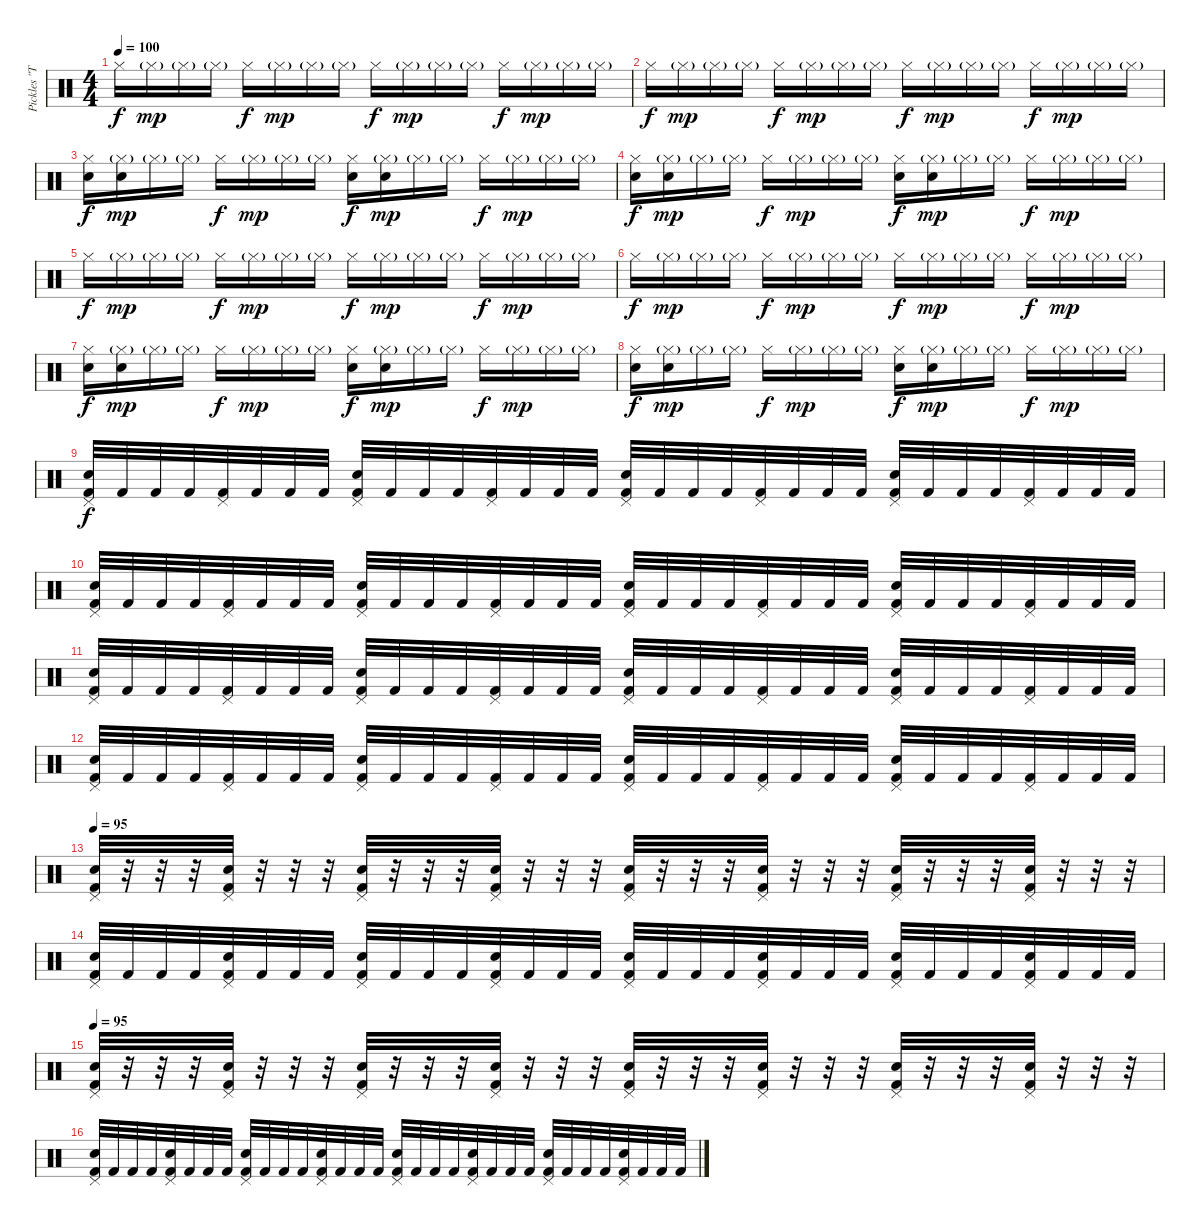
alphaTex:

\track ("Pickles \"The Drummer\"" "Pickles \"T") {instrument percussion}
\staff {score}
\articulation defaults
\ts (4 4)
\tempo 100
\clef neutral
\ks c "Hi-Hat (closed)".16{dy f} "Hi-Hat (closed)"{g}.16{dy mp} "Hi-Hat (closed)"{g}.16 "Hi-Hat (closed)"{g}.16 "Hi-Hat (closed)".16{dy f} "Hi-Hat (closed)"{g}.16{dy mp} "Hi-Hat (closed)"{g}.16 "Hi-Hat (closed)"{g}.16 "Hi-Hat (closed)".16{dy f} "Hi-Hat (closed)"{g}.16{dy mp} "Hi-Hat (closed)"{g}.16 "Hi-Hat (closed)"{g}.16 "Hi-Hat (closed)".16{dy f} "Hi-Hat (closed)"{g}.16{dy mp} "Hi-Hat (closed)"{g}.16 "Hi-Hat (closed)"{g}.16
|
"Hi-Hat (closed)".16{dy f} "Hi-Hat (closed)"{g}.16{dy mp} "Hi-Hat (closed)"{g}.16 "Hi-Hat (closed)"{g}.16 "Hi-Hat (closed)".16{dy f} "Hi-Hat (closed)"{g}.16{dy mp} "Hi-Hat (closed)"{g}.16 "Hi-Hat (closed)"{g}.16 "Hi-Hat (closed)".16{dy f} "Hi-Hat (closed)"{g}.16{dy mp} "Hi-Hat (closed)"{g}.16 "Hi-Hat (closed)"{g}.16 "Hi-Hat (closed)".16{dy f} "Hi-Hat (closed)"{g}.16{dy mp} "Hi-Hat (closed)"{g}.16 "Hi-Hat (closed)"{g}.16 |
("Hi-Hat (closed)" "Electric Snare (hit)").16{dy f} ("Hi-Hat (closed)"{g} "Electric Snare (hit)").16{dy mp} "Hi-Hat (closed)"{g}.16 "Hi-Hat (closed)"{g}.16 "Hi-Hat (closed)".16{dy f} "Hi-Hat (closed)"{g}.16{dy mp} "Hi-Hat (closed)"{g}.16 "Hi-Hat (closed)"{g}.16 ("Hi-Hat (closed)" "Electric Snare (hit)").16{dy f} ("Hi-Hat (closed)"{g} "Electric Snare (hit)").16{dy mp} "Hi-Hat (closed)"{g}.16 "Hi-Hat (closed)"{g}.16 "Hi-Hat (closed)".16{dy f} "Hi-Hat (closed)"{g}.16{dy mp} "Hi-Hat (closed)"{g}.16 "Hi-Hat (closed)"{g}.16 |
("Hi-Hat (closed)" "Electric Snare (hit)").16{dy f} ("Hi-Hat (closed)"{g} "Electric Snare (hit)").16{dy mp} "Hi-Hat (closed)"{g}.16 "Hi-Hat (closed)"{g}.16 "Hi-Hat (closed)".16{dy f} "Hi-Hat (closed)"{g}.16{dy mp} "Hi-Hat (closed)"{g}.16 "Hi-Hat (closed)"{g}.16 ("Hi-Hat (closed)" "Electric Snare (hit)").16{dy f} ("Hi-Hat (closed)"{g} "Electric Snare (hit)").16{dy mp} "Hi-Hat (closed)"{g}.16 "Hi-Hat (closed)"{g}.16 "Hi-Hat (closed)".16{dy f} "Hi-Hat (closed)"{g}.16{dy mp} "Hi-Hat (closed)"{g}.16 "Hi-Hat (closed)"{g}.16 |
"Hi-Hat (closed)".16{dy f} "Hi-Hat (closed)"{g}.16{dy mp} "Hi-Hat (closed)"{g}.16 "Hi-Hat (closed)"{g}.16 "Hi-Hat (closed)".16{dy f} "Hi-Hat (closed)"{g}.16{dy mp} "Hi-Hat (closed)"{g}.16 "Hi-Hat (closed)"{g}.16 "Hi-Hat (closed)".16{dy f} "Hi-Hat (closed)"{g}.16{dy mp} "Hi-Hat (closed)"{g}.16 "Hi-Hat (closed)"{g}.16 "Hi-Hat (closed)".16{dy f} "Hi-Hat (closed)"{g}.16{dy mp} "Hi-Hat (closed)"{g}.16 "Hi-Hat (closed)"{g}.16 |
"Hi-Hat (closed)".16{dy f} "Hi-Hat (closed)"{g}.16{dy mp} "Hi-Hat (closed)"{g}.16 "Hi-Hat (closed)"{g}.16 "Hi-Hat (closed)".16{dy f} "Hi-Hat (closed)"{g}.16{dy mp} "Hi-Hat (closed)"{g}.16 "Hi-Hat (closed)"{g}.16 "Hi-Hat (closed)".16{dy f} "Hi-Hat (closed)"{g}.16{dy mp} "Hi-Hat (closed)"{g}.16 "Hi-Hat (closed)"{g}.16 "Hi-Hat (closed)".16{dy f} "Hi-Hat (closed)"{g}.16{dy mp} "Hi-Hat (closed)"{g}.16 "Hi-Hat (closed)"{g}.16 |
("Hi-Hat (closed)" "Electric Snare (hit)").16{dy f} ("Hi-Hat (closed)"{g} "Electric Snare (hit)").16{dy mp} "Hi-Hat (closed)"{g}.16 "Hi-Hat (closed)"{g}.16 "Hi-Hat (closed)".16{dy f} "Hi-Hat (closed)"{g}.16{dy mp} "Hi-Hat (closed)"{g}.16 "Hi-Hat (closed)"{g}.16 ("Hi-Hat (closed)" "Electric Snare (hit)").16{dy f} ("Hi-Hat (closed)"{g} "Electric Snare (hit)").16{dy mp} "Hi-Hat (closed)"{g}.16 "Hi-Hat (closed)"{g}.16 "Hi-Hat (closed)".16{dy f} "Hi-Hat (closed)"{g}.16{dy mp} "Hi-Hat (closed)"{g}.16 "Hi-Hat (closed)"{g}.16 |
("Hi-Hat (closed)" "Electric Snare (hit)").16{dy f} ("Hi-Hat (closed)"{g} "Electric Snare (hit)").16{dy mp} "Hi-Hat (closed)"{g}.16 "Hi-Hat (closed)"{g}.16 "Hi-Hat (closed)".16{dy f} "Hi-Hat (closed)"{g}.16{dy mp} "Hi-Hat (closed)"{g}.16 "Hi-Hat (closed)"{g}.16 ("Hi-Hat (closed)" "Electric Snare (hit)").16{dy f} ("Hi-Hat (closed)"{g} "Electric Snare (hit)").16{dy mp} "Hi-Hat (closed)"{g}.16 "Hi-Hat (closed)"{g}.16 "Hi-Hat (closed)".16{dy f} "Hi-Hat (closed)"{g}.16{dy mp} "Hi-Hat (closed)"{g}.16 "Hi-Hat (closed)"{g}.16 |
("Pedal Hi-Hat (hit)" "Electric Snare (hit)" "Kick (hit) 2").32{dy f} "Kick (hit) 2".32 "Kick (hit) 2".32 "Kick (hit) 2".32 ("Pedal Hi-Hat (hit)" "Kick (hit) 2").32 "Kick (hit) 2".32 "Kick (hit) 2".32 "Kick (hit) 2".32 ("Pedal Hi-Hat (hit)" "Electric Snare (hit)" "Kick (hit) 2").32 "Kick (hit) 2".32 "Kick (hit) 2".32 "Kick (hit) 2".32 ("Pedal Hi-Hat (hit)" "Kick (hit) 2").32 "Kick (hit) 2".32 "Kick (hit) 2".32 "Kick (hit) 2".32 ("Pedal Hi-Hat (hit)" "Electric Snare (hit)" "Kick (hit) 2").32 "Kick (hit) 2".32 "Kick (hit) 2".32 "Kick (hit) 2".32 ("Pedal Hi-Hat (hit)" "Kick (hit) 2").32 "Kick (hit) 2".32 "Kick (hit) 2".32 "Kick (hit) 2".32 ("Pedal Hi-Hat (hit)" "Electric Snare (hit)" "Kick (hit) 2").32 "Kick (hit) 2".32 "Kick (hit) 2".32 "Kick (hit) 2".32 ("Pedal Hi-Hat (hit)" "Kick (hit) 2").32 "Kick (hit) 2".32 "Kick (hit) 2".32 "Kick (hit) 2".32 |
("Pedal Hi-Hat (hit)" "Electric Snare (hit)" "Kick (hit) 2").32 "Kick (hit) 2".32 "Kick (hit) 2".32 "Kick (hit) 2".32 ("Pedal Hi-Hat (hit)" "Kick (hit) 2").32 "Kick (hit) 2".32 "Kick (hit) 2".32 "Kick (hit) 2".32 ("Pedal Hi-Hat (hit)" "Electric Snare (hit)" "Kick (hit) 2").32 "Kick (hit) 2".32 "Kick (hit) 2".32 "Kick (hit) 2".32 ("Pedal Hi-Hat (hit)" "Kick (hit) 2").32 "Kick (hit) 2".32 "Kick (hit) 2".32 "Kick (hit) 2".32 ("Pedal Hi-Hat (hit)" "Electric Snare (hit)" "Kick (hit) 2").32 "Kick (hit) 2".32 "Kick (hit) 2".32 "Kick (hit) 2".32 ("Pedal Hi-Hat (hit)" "Kick (hit) 2").32 "Kick (hit) 2".32 "Kick (hit) 2".32 "Kick (hit) 2".32 ("Pedal Hi-Hat (hit)" "Electric Snare (hit)" "Kick (hit) 2").32 "Kick (hit) 2".32 "Kick (hit) 2".32 "Kick (hit) 2".32 ("Pedal Hi-Hat (hit)" "Kick (hit) 2").32 "Kick (hit) 2".32 "Kick (hit) 2".32 "Kick (hit) 2".32 |
("Pedal Hi-Hat (hit)" "Electric Snare (hit)" "Kick (hit) 2").32 "Kick (hit) 2".32 "Kick (hit) 2".32 "Kick (hit) 2".32 ("Pedal Hi-Hat (hit)" "Kick (hit) 2").32 "Kick (hit) 2".32 "Kick (hit) 2".32 "Kick (hit) 2".32 ("Pedal Hi-Hat (hit)" "Electric Snare (hit)" "Kick (hit) 2").32 "Kick (hit) 2".32 "Kick (hit) 2".32 "Kick (hit) 2".32 ("Pedal Hi-Hat (hit)" "Kick (hit) 2").32 "Kick (hit) 2".32 "Kick (hit) 2".32 "Kick (hit) 2".32 ("Pedal Hi-Hat (hit)" "Electric Snare (hit)" "Kick (hit) 2").32 "Kick (hit) 2".32 "Kick (hit) 2".32 "Kick (hit) 2".32 ("Pedal Hi-Hat (hit)" "Kick (hit) 2").32 "Kick (hit) 2".32 "Kick (hit) 2".32 "Kick (hit) 2".32 ("Pedal Hi-Hat (hit)" "Electric Snare (hit)" "Kick (hit) 2").32 "Kick (hit) 2".32 "Kick (hit) 2".32 "Kick (hit) 2".32 ("Pedal Hi-Hat (hit)" "Kick (hit) 2").32 "Kick (hit) 2".32 "Kick (hit) 2".32 "Kick (hit) 2".32 |
("Pedal Hi-Hat (hit)" "Electric Snare (hit)" "Kick (hit) 2").32 "Kick (hit) 2".32 "Kick (hit) 2".32 "Kick (hit) 2".32 ("Pedal Hi-Hat (hit)" "Kick (hit) 2").32 "Kick (hit) 2".32 "Kick (hit) 2".32 "Kick (hit) 2".32 ("Pedal Hi-Hat (hit)" "Electric Snare (hit)" "Kick (hit) 2").32 "Kick (hit) 2".32 "Kick (hit) 2".32 "Kick (hit) 2".32 ("Pedal Hi-Hat (hit)" "Kick (hit) 2").32 "Kick (hit) 2".32 "Kick (hit) 2".32 "Kick (hit) 2".32 ("Pedal Hi-Hat (hit)" "Electric Snare (hit)" "Kick (hit) 2").32 "Kick (hit) 2".32 "Kick (hit) 2".32 "Kick (hit) 2".32 ("Pedal Hi-Hat (hit)" "Kick (hit) 2").32 "Kick (hit) 2".32 "Kick (hit) 2".32 "Kick (hit) 2".32 ("Pedal Hi-Hat (hit)" "Electric Snare (hit)" "Kick (hit) 2").32 "Kick (hit) 2".32 "Kick (hit) 2".32 "Kick (hit) 2".32 ("Pedal Hi-Hat (hit)" "Kick (hit) 2").32 "Kick (hit) 2".32 "Kick (hit) 2".32 "Kick (hit) 2".32 |
\tempo 95
("Electric Snare (hit)" "Pedal Hi-Hat (hit)" "Kick (hit) 2").32 r.32 r.32 r.32 ("Electric Snare (hit)" "Pedal Hi-Hat (hit)" "Kick (hit) 2").32 r.32 r.32 r.32 ("Electric Snare (hit)" "Pedal Hi-Hat (hit)" "Kick (hit) 2").32 r.32 r.32 r.32 ("Electric Snare (hit)" "Pedal Hi-Hat (hit)" "Kick (hit) 2").32 r.32 r.32 r.32 ("Electric Snare (hit)" "Pedal Hi-Hat (hit)" "Kick (hit) 2").32 r.32 r.32 r.32 ("Electric Snare (hit)" "Pedal Hi-Hat (hit)" "Kick (hit) 2").32 r.32 r.32 r.32 ("Electric Snare (hit)" "Pedal Hi-Hat (hit)" "Kick (hit) 2").32 r.32 r.32 r.32 ("Electric Snare (hit)" "Pedal Hi-Hat (hit)" "Kick (hit) 2").32 r.32 r.32 r.32 |
("Pedal Hi-Hat (hit)" "Electric Snare (hit)" "Kick (hit) 2").32 "Kick (hit) 2".32 "Kick (hit) 2".32 "Kick (hit) 2".32 ("Pedal Hi-Hat (hit)" "Electric Snare (hit)" "Kick (hit) 2").32 "Kick (hit) 2".32 "Kick (hit) 2".32 "Kick (hit) 2".32 ("Pedal Hi-Hat (hit)" "Electric Snare (hit)" "Kick (hit) 2").32 "Kick (hit) 2".32 "Kick (hit) 2".32 "Kick (hit) 2".32 ("Pedal Hi-Hat (hit)" "Electric Snare (hit)" "Kick (hit) 2").32 "Kick (hit) 2".32 "Kick (hit) 2".32 "Kick (hit) 2".32 ("Pedal Hi-Hat (hit)" "Electric Snare (hit)" "Kick (hit) 2").32 "Kick (hit) 2".32 "Kick (hit) 2".32 "Kick (hit) 2".32 ("Pedal Hi-Hat (hit)" "Electric Snare (hit)" "Kick (hit) 2").32 "Kick (hit) 2".32 "Kick (hit) 2".32 "Kick (hit) 2".32 ("Pedal Hi-Hat (hit)" "Electric Snare (hit)" "Kick (hit) 2").32 "Kick (hit) 2".32 "Kick (hit) 2".32 "Kick (hit) 2".32 ("Pedal Hi-Hat (hit)" "Electric Snare (hit)" "Kick (hit) 2").32 "Kick (hit) 2".32 "Kick (hit) 2".32 "Kick (hit) 2".32 |
\tempo 95
("Electric Snare (hit)" "Pedal Hi-Hat (hit)" "Kick (hit) 2").32 r.32 r.32 r.32 ("Electric Snare (hit)" "Pedal Hi-Hat (hit)" "Kick (hit) 2").32 r.32 r.32 r.32 ("Electric Snare (hit)" "Pedal Hi-Hat (hit)" "Kick (hit) 2").32 r.32 r.32 r.32 ("Electric Snare (hit)" "Pedal Hi-Hat (hit)" "Kick (hit) 2").32 r.32 r.32 r.32 ("Electric Snare (hit)" "Pedal Hi-Hat (hit)" "Kick (hit) 2").32 r.32 r.32 r.32 ("Electric Snare (hit)" "Pedal Hi-Hat (hit)" "Kick (hit) 2").32 r.32 r.32 r.32 ("Electric Snare (hit)" "Pedal Hi-Hat (hit)" "Kick (hit) 2").32 r.32 r.32 r.32 ("Electric Snare (hit)" "Pedal Hi-Hat (hit)" "Kick (hit) 2").32 r.32 r.32 r.32 |
("Pedal Hi-Hat (hit)" "Electric Snare (hit)" "Kick (hit) 2").32 "Kick (hit) 2".32 "Kick (hit) 2".32 "Kick (hit) 2".32 ("Pedal Hi-Hat (hit)" "Electric Snare (hit)" "Kick (hit) 2").32 "Kick (hit) 2".32 "Kick (hit) 2".32 "Kick (hit) 2".32 ("Pedal Hi-Hat (hit)" "Electric Snare (hit)" "Kick (hit) 2").32 "Kick (hit) 2".32 "Kick (hit) 2".32 "Kick (hit) 2".32 ("Pedal Hi-Hat (hit)" "Electric Snare (hit)" "Kick (hit) 2").32 "Kick (hit) 2".32 "Kick (hit) 2".32 "Kick (hit) 2".32 ("Pedal Hi-Hat (hit)" "Electric Snare (hit)" "Kick (hit) 2").32 "Kick (hit) 2".32 "Kick (hit) 2".32 "Kick (hit) 2".32 ("Pedal Hi-Hat (hit)" "Electric Snare (hit)" "Kick (hit) 2").32 "Kick (hit) 2".32 "Kick (hit) 2".32 "Kick (hit) 2".32 ("Pedal Hi-Hat (hit)" "Electric Snare (hit)" "Kick (hit) 2").32 "Kick (hit) 2".32 "Kick (hit) 2".32 "Kick (hit) 2".32 ("Pedal Hi-Hat (hit)" "Electric Snare (hit)" "Kick (hit) 2").32 "Kick (hit) 2".32 "Kick (hit) 2".32 "Kick (hit) 2".32
